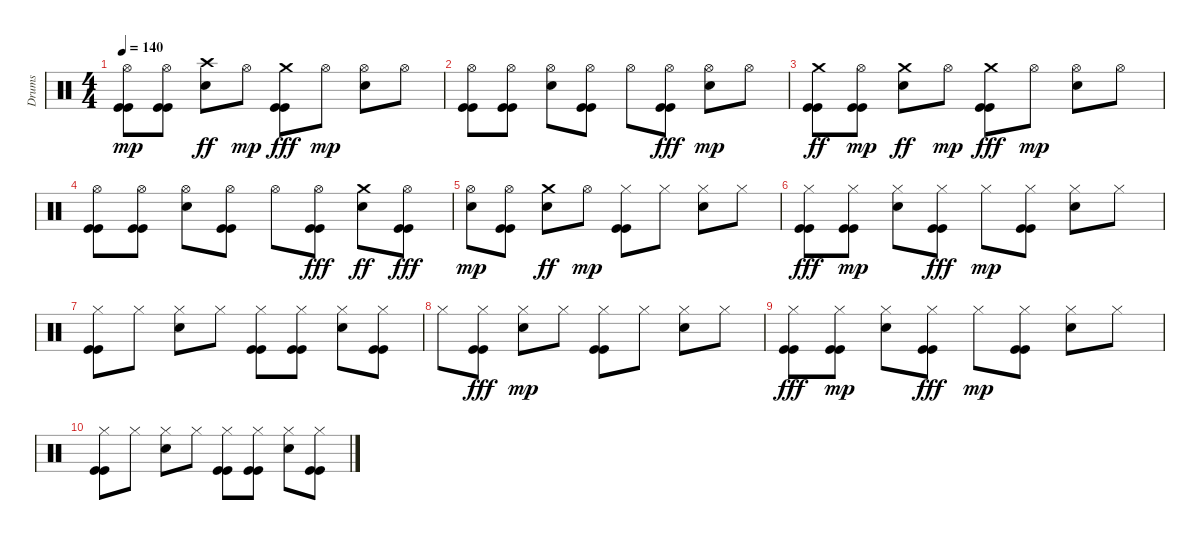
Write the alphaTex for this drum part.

\track ("Drums" "Drums") {instrument percussion}
\staff {score}
\articulation defaults
\ts (4 4)
\tempo 140
\clef neutral
\ks c
("Kick (hit)" "Kick (hit)" "Hi-Hat (open)").8{dy mp} ("Kick (hit)" "Kick (hit)" "Hi-Hat (open)").8 ("Crash high (hit)" "Electric Snare (hit)").8{dy ff} "Hi-Hat (open)".8{dy mp} ("Kick (hit)" "Kick (hit)" "Crash medium (hit)").8{dy fff} "Hi-Hat (open)".8{dy mp} ("Electric Snare (hit)" "Hi-Hat (open)").8 "Hi-Hat (open)".8 |
("Kick (hit)" "Kick (hit)" "Hi-Hat (open)").8 ("Kick (hit)" "Kick (hit)" "Hi-Hat (open)").8 ("Electric Snare (hit)" "Hi-Hat (open)").8 ("Kick (hit)" "Kick (hit)" "Hi-Hat (open)").8 "Hi-Hat (open)".8 ("Kick (hit)" "Hi-Hat (open)" "Kick (hit)").8{dy fff} ("Electric Snare (hit)" "Hi-Hat (open)").8{dy mp} "Hi-Hat (open)".8 |
("Kick (hit)" "Kick (hit)" "Crash medium (hit)").8{dy ff} ("Kick (hit)" "Kick (hit)" "Hi-Hat (open)").8{dy mp} ("Crash medium (hit)" "Electric Snare (hit)").8{dy ff} "Hi-Hat (open)".8{dy mp} ("Kick (hit)" "Kick (hit)" "Crash medium (hit)").8{dy fff} "Hi-Hat (open)".8{dy mp} ("Electric Snare (hit)" "Hi-Hat (open)").8 "Hi-Hat (open)".8 |
("Kick (hit)" "Kick (hit)" "Hi-Hat (open)").8 ("Kick (hit)" "Kick (hit)" "Hi-Hat (open)").8 ("Electric Snare (hit)" "Hi-Hat (open)").8 ("Kick (hit)" "Kick (hit)" "Hi-Hat (open)").8 "Hi-Hat (open)".8 ("Kick (hit)" "Hi-Hat (open)" "Kick (hit)").8{dy fff} ("Electric Snare (hit)" "Crash medium (hit)").8{dy ff} ("Hi-Hat (open)" "Kick (hit)" "Kick (hit)").8{dy fff} |
("Electric Snare (hit)" "Hi-Hat (open)").8{dy mp} ("Kick (hit)" "Kick (hit)" "Hi-Hat (open)").8 ("Crash medium (hit)" "Electric Snare (hit)").8{dy ff} "Hi-Hat (open)".8{dy mp} ("Kick (hit)" "Kick (hit)" "Hi-Hat (closed)").8 "Hi-Hat (closed)".8 ("Hand Clap (hit)" "Hi-Hat (closed)").8 "Hi-Hat (closed)".8 |
("Hi-Hat (closed)" "Kick (hit)" "Kick (hit)").8{dy fff} ("Kick (hit)" "Kick (hit)" "Hi-Hat (closed)").8{dy mp} ("Hand Clap (hit)" "Hi-Hat (closed)").8 ("Hi-Hat (closed)" "Kick (hit)" "Kick (hit)").8{dy fff} "Hi-Hat (closed)".8{dy mp} ("Kick (hit)" "Kick (hit)" "Hi-Hat (closed)").8 ("Hand Clap (hit)" "Hi-Hat (closed)").8 "Hi-Hat (closed)".8 |
("Kick (hit)" "Kick (hit)" "Hi-Hat (closed)").8 "Hi-Hat (closed)".8 ("Hand Clap (hit)" "Hi-Hat (closed)").8 "Hi-Hat (closed)".8 ("Kick (hit)" "Kick (hit)" "Hi-Hat (closed)").8 ("Kick (hit)" "Kick (hit)" "Hi-Hat (closed)").8 ("Hand Clap (hit)" "Hi-Hat (closed)").8 ("Kick (hit)" "Kick (hit)" "Hi-Hat (closed)").8 |
"Hi-Hat (closed)".8 ("Hi-Hat (closed)" "Kick (hit)" "Kick (hit)").8{dy fff} ("Hand Clap (hit)" "Hi-Hat (closed)").8{dy mp} "Hi-Hat (closed)".8 ("Kick (hit)" "Kick (hit)" "Hi-Hat (closed)").8 "Hi-Hat (closed)".8 ("Hand Clap (hit)" "Hi-Hat (closed)").8 "Hi-Hat (closed)".8 |
("Hi-Hat (closed)" "Kick (hit)" "Kick (hit)").8{dy fff} ("Kick (hit)" "Kick (hit)" "Hi-Hat (closed)").8{dy mp} ("Hand Clap (hit)" "Hi-Hat (closed)").8 ("Hi-Hat (closed)" "Kick (hit)" "Kick (hit)").8{dy fff} "Hi-Hat (closed)".8{dy mp} ("Kick (hit)" "Kick (hit)" "Hi-Hat (closed)").8 ("Hand Clap (hit)" "Hi-Hat (closed)").8 "Hi-Hat (closed)".8 |
("Kick (hit)" "Kick (hit)" "Hi-Hat (closed)").8 "Hi-Hat (closed)".8 ("Hand Clap (hit)" "Hi-Hat (closed)").8 "Hi-Hat (closed)".8 ("Kick (hit)" "Kick (hit)" "Hi-Hat (closed)").8 ("Kick (hit)" "Kick (hit)" "Hi-Hat (closed)").8 ("Hand Clap (hit)" "Hi-Hat (closed)").8 ("Kick (hit)" "Kick (hit)" "Hi-Hat (closed)").8
